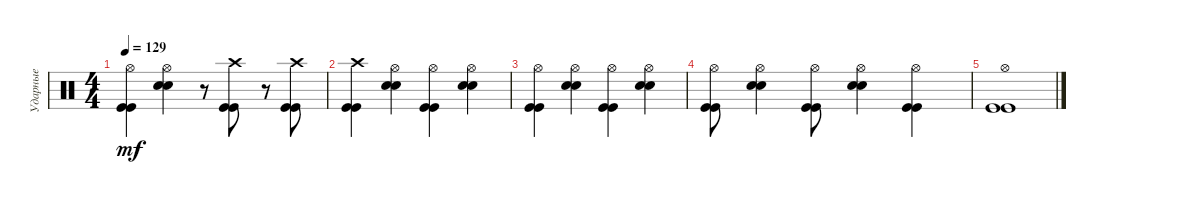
\track ("Ударные" "Ударные") {instrument percussion}
\staff {score}
\articulation defaults
\ts (4 4)
\tempo 129
\clef neutral
\ks c
("Hi-Hat (open)" "Kick (hit)" "Kick (hit)").4{dy mf} ("Hi-Hat (open)" "Snare (hit) 2" "Snare (hit) 2").4 r.8 ("Crash high (hit)" "Kick (hit)" "Kick (hit)").8 r.8 ("Crash high (hit)" "Kick (hit)" "Kick (hit)").8 |
("Crash high (hit)" "Kick (hit)" "Kick (hit)").4 ("Hi-Hat (open)" "Snare (hit) 2" "Snare (hit) 2").4 ("Hi-Hat (open)" "Kick (hit)" "Kick (hit)").4 ("Hi-Hat (open)" "Snare (hit) 2" "Snare (hit) 2").4 |
("Hi-Hat (open)" "Kick (hit)" "Kick (hit)").4 ("Hi-Hat (open)" "Snare (hit) 2" "Snare (hit) 2").4 ("Hi-Hat (open)" "Kick (hit)" "Kick (hit)").4 ("Hi-Hat (open)" "Snare (hit) 2" "Snare (hit) 2").4 |
("Hi-Hat (open)" "Kick (hit)" "Kick (hit)").8 ("Hi-Hat (open)" "Snare (hit) 2" "Snare (hit) 2").4 ("Hi-Hat (open)" "Kick (hit)" "Kick (hit)").8 ("Hi-Hat (open)" "Snare (hit) 2" "Snare (hit) 2").4 ("Hi-Hat (open)" "Kick (hit)" "Kick (hit)").4 |
("Hi-Hat (open)" "Kick (hit)" "Kick (hit)").1
